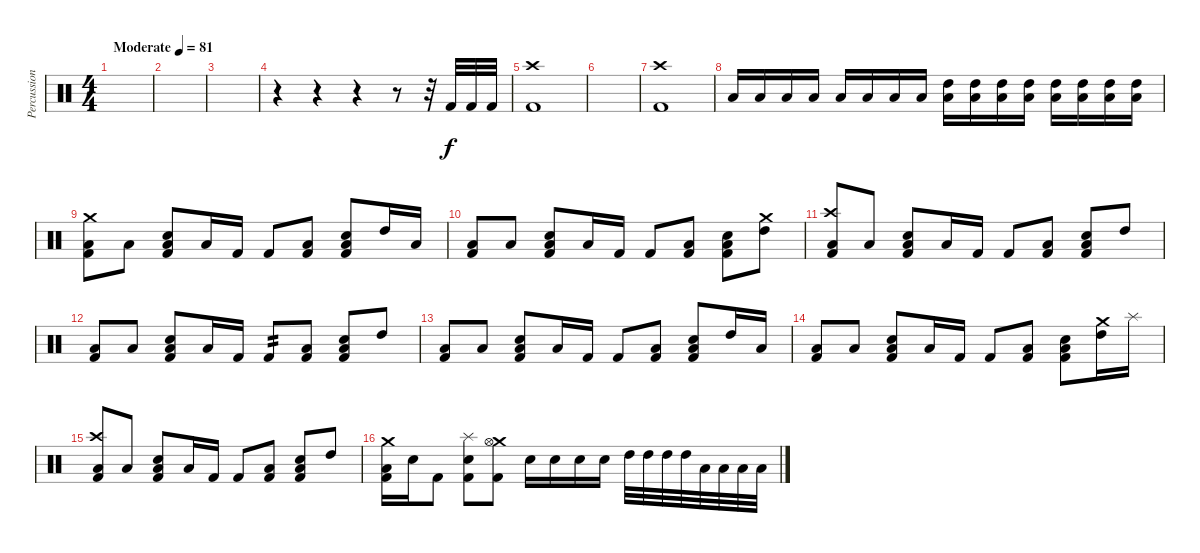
\track ("Percussions" "Percussion") {instrument percussion}
\staff {score}
\articulation defaults
\ts (4 4)
\tempo (81 "Moderate")
\clef neutral
\ks c
|
|
|
r.4 r.4 r.4 r.8 r.32 "Kick (hit) 2".32 "Kick (hit) 2".32 "Kick (hit) 2".32 |
("Crash high (hit)" "Kick (hit) 2").1 |
|
("Crash high (hit)" "Kick (hit) 2").1 |
"Low Tom (hit)".16{volume 0} "Low Tom (hit)".16{volume 13} "Low Tom (hit)".16 "Low Tom (hit)".16 "Low Tom (hit)".16 "Low Tom (hit)".16 "Low Tom (hit)".16 "Low Tom (hit)".16 ("High Tom (hit)" "Low Tom (hit)").16 ("High Tom (hit)" "Low Tom (hit)").16 ("High Tom (hit)" "Low Tom (hit)").16 ("High Tom (hit)" "Low Tom (hit)").16 ("High Tom (hit)" "Low Tom (hit)").16 ("High Tom (hit)" "Low Tom (hit)").16 ("High Tom (hit)" "Low Tom (hit)").16 ("High Tom (hit)" "Low Tom (hit)").16 |
("Crash medium (hit)" "Low Tom (hit)" "Kick (hit) 2").8 "Low Tom (hit)".8 ("Low Tom (hit)" "Snare (hit) 2" "Kick (hit) 2").8 "Low Tom (hit)".16 "Kick (hit) 2".16 "Kick (hit) 2".8 ("Low Tom (hit)" "Kick (hit) 2").8 ("Low Tom (hit)" "Snare (hit) 2" "Kick (hit) 2").8 "High Tom (hit)".16 "Low Tom (hit)".16 |
("Low Tom (hit)" "Kick (hit) 2").8 "Low Tom (hit)".8 ("Low Tom (hit)" "Snare (hit) 2" "Kick (hit) 2").8 "Low Tom (hit)".16 "Kick (hit) 2".16 "Kick (hit) 2".8 ("Low Tom (hit)" "Kick (hit) 2").8 ("Low Tom (hit)" "Snare (hit) 2" "Kick (hit) 2").8 ("Crash medium (hit)" "High Tom (hit)").8 |
("Crash high (hit)" "Low Tom (hit)" "Kick (hit) 2").8 "Low Tom (hit)".8 ("Low Tom (hit)" "Snare (hit) 2" "Kick (hit) 2").8 "Low Tom (hit)".16 "Kick (hit) 2".16 "Kick (hit) 2".8 ("Low Tom (hit)" "Kick (hit) 2").8 ("Low Tom (hit)" "Snare (hit) 2" "Kick (hit) 2").8 "High Tom (hit)".8 |
("Low Tom (hit)" "Kick (hit) 2").8 "Low Tom (hit)".8 ("Low Tom (hit)" "Snare (hit) 2" "Kick (hit) 2").8 "Low Tom (hit)".16 "Kick (hit) 2".16 "Kick (hit) 2".8{tp 2} ("Low Tom (hit)" "Kick (hit) 2").8 ("Low Tom (hit)" "Snare (hit) 2" "Kick (hit) 2").8 "High Tom (hit)".8 |
("Low Tom (hit)" "Kick (hit) 2").8 "Low Tom (hit)".8 ("Low Tom (hit)" "Snare (hit) 2" "Kick (hit) 2").8 "Low Tom (hit)".16 "Kick (hit) 2".16 "Kick (hit) 2".8 ("Low Tom (hit)" "Kick (hit) 2").8 ("Low Tom (hit)" "Snare (hit) 2" "Kick (hit) 2").8 "High Tom (hit)".16 "Low Tom (hit)".16 |
("Low Tom (hit)" "Kick (hit) 2").8 "Low Tom (hit)".8 ("Low Tom (hit)" "Snare (hit) 2" "Kick (hit) 2").8 "Low Tom (hit)".16 "Kick (hit) 2".16 "Kick (hit) 2".8 ("Low Tom (hit)" "Kick (hit) 2").8 ("Low Tom (hit)" "Snare (hit) 2" "Kick (hit) 2").8 ("Crash medium (hit)" "High Tom (hit)").16 "Splash (hit)".16 |
("Crash high (hit)" "Low Tom (hit)" "Kick (hit) 2").8 "Low Tom (hit)".8 ("Low Tom (hit)" "Snare (hit) 2" "Kick (hit) 2").8 "Low Tom (hit)".16 "Kick (hit) 2".16 "Kick (hit) 2".8 ("Low Tom (hit)" "Kick (hit) 2").8 ("Low Tom (hit)" "Snare (hit) 2" "Kick (hit) 2").8 "High Tom (hit)".8 |
("Crash medium (hit)" "Low Tom (hit)" "Kick (hit) 2").16 "Snare (hit) 2".16 "Kick (hit) 2".8 ("Splash (hit)" "Snare (hit) 2" "Kick (hit) 2").8 ("Crash medium (hit)" "Hi-Hat (open)" "Kick (hit) 2").8 "Snare (hit) 2".16 "Snare (hit) 2".16 "Snare (hit) 2".16 "Snare (hit) 2".16 "High Tom (hit)".32 "High Tom (hit)".32 "High Tom (hit)".32 "High Tom (hit)".32 "Low Tom (hit)".32 "Low Tom (hit)".32 "Low Tom (hit)".32 "Low Tom (hit)".32
